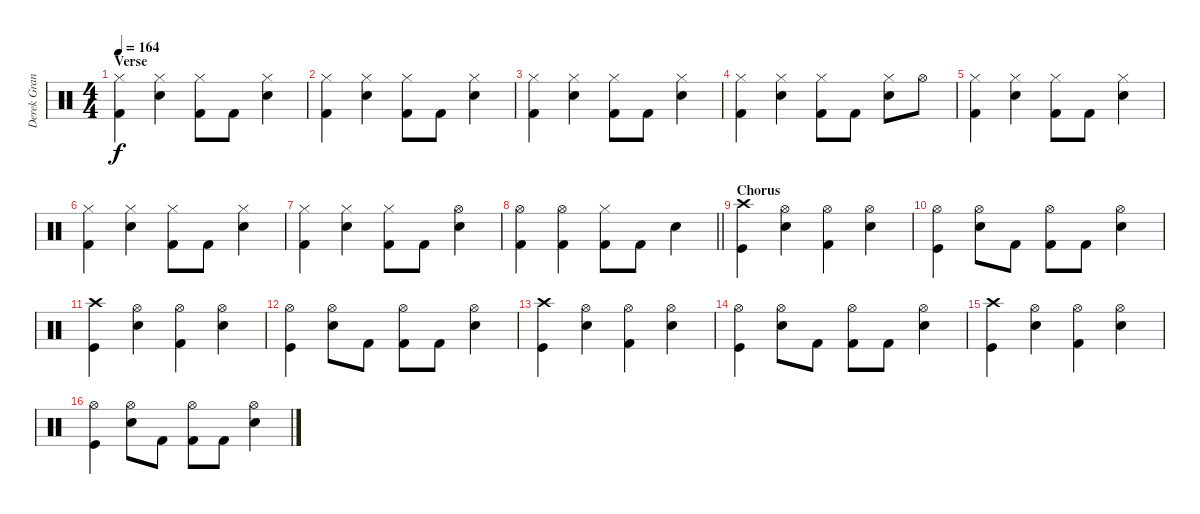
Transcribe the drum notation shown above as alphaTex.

\track ("Derek Grant - Drums" "Derek Gran") {instrument percussion}
\staff {score}
\articulation defaults
\ts (4 4)
\section ("" "Verse")
\tempo 164
\clef neutral
\ks c
("Hi-Hat (closed)" "Kick (hit) 2").4{dy f} ("Hi-Hat (closed)" "Snare (hit) 2").4 ("Hi-Hat (closed)" "Kick (hit) 2").8 "Kick (hit) 2".8 ("Hi-Hat (closed)" "Snare (hit) 2").4 |
("Hi-Hat (closed)" "Kick (hit) 2").4 ("Hi-Hat (closed)" "Snare (hit) 2").4 ("Hi-Hat (closed)" "Kick (hit) 2").8 "Kick (hit) 2".8 ("Hi-Hat (closed)" "Snare (hit) 2").4 |
("Hi-Hat (closed)" "Kick (hit) 2").4 ("Hi-Hat (closed)" "Snare (hit) 2").4 ("Hi-Hat (closed)" "Kick (hit) 2").8 "Kick (hit) 2".8 ("Hi-Hat (closed)" "Snare (hit) 2").4 |
("Hi-Hat (closed)" "Kick (hit) 2").4 ("Hi-Hat (closed)" "Snare (hit) 2").4 ("Hi-Hat (closed)" "Kick (hit) 2").8 "Kick (hit) 2".8 ("Hi-Hat (closed)" "Snare (hit) 2").8 "Hi-Hat (open)".8 |
("Hi-Hat (closed)" "Kick (hit) 2").4 ("Hi-Hat (closed)" "Snare (hit) 2").4 ("Hi-Hat (closed)" "Kick (hit) 2").8 "Kick (hit) 2".8 ("Hi-Hat (closed)" "Snare (hit) 2").4 |
("Hi-Hat (closed)" "Kick (hit) 2").4 ("Hi-Hat (closed)" "Snare (hit) 2").4 ("Hi-Hat (closed)" "Kick (hit) 2").8 "Kick (hit) 2".8 ("Hi-Hat (closed)" "Snare (hit) 2").4 |
("Hi-Hat (closed)" "Kick (hit) 2").4 ("Hi-Hat (closed)" "Snare (hit) 2").4 ("Hi-Hat (closed)" "Kick (hit) 2").8 "Kick (hit) 2".8 ("Hi-Hat (open)" "Snare (hit) 2").4 |
\barLineRight lightlight
("Hi-Hat (open)" "Kick (hit) 2").4 ("Hi-Hat (open)" "Kick (hit) 2").4 ("Hi-Hat (closed)" "Kick (hit) 2").8 "Kick (hit) 2".8 "Snare (hit) 2".4 |
\section ("" "Chorus")
("Crash high (hit)" "Kick (hit)").4 ("Snare (hit) 2" "Hi-Hat (open)").4 ("Kick (hit) 2" "Hi-Hat (open)").4 ("Snare (hit) 2" "Hi-Hat (open)").4 |
("Hi-Hat (open)" "Kick (hit)").4 ("Snare (hit) 2" "Hi-Hat (open)").8 "Kick (hit) 2".8 ("Kick (hit) 2" "Hi-Hat (open)").8 "Kick (hit) 2".8 ("Snare (hit) 2" "Hi-Hat (open)").4 |
("Crash high (hit)" "Kick (hit)").4 ("Snare (hit) 2" "Hi-Hat (open)").4 ("Kick (hit) 2" "Hi-Hat (open)").4 ("Snare (hit) 2" "Hi-Hat (open)").4 |
("Hi-Hat (open)" "Kick (hit)").4 ("Snare (hit) 2" "Hi-Hat (open)").8 "Kick (hit) 2".8 ("Kick (hit) 2" "Hi-Hat (open)").8 "Kick (hit) 2".8 ("Snare (hit) 2" "Hi-Hat (open)").4 |
("Crash high (hit)" "Kick (hit)").4 ("Snare (hit) 2" "Hi-Hat (open)").4 ("Kick (hit) 2" "Hi-Hat (open)").4 ("Snare (hit) 2" "Hi-Hat (open)").4 |
("Hi-Hat (open)" "Kick (hit)").4 ("Snare (hit) 2" "Hi-Hat (open)").8 "Kick (hit) 2".8 ("Kick (hit) 2" "Hi-Hat (open)").8 "Kick (hit) 2".8 ("Snare (hit) 2" "Hi-Hat (open)").4 |
("Crash high (hit)" "Kick (hit)").4 ("Snare (hit) 2" "Hi-Hat (open)").4 ("Kick (hit) 2" "Hi-Hat (open)").4 ("Snare (hit) 2" "Hi-Hat (open)").4 |
("Hi-Hat (open)" "Kick (hit)").4 ("Snare (hit) 2" "Hi-Hat (open)").8 "Kick (hit) 2".8 ("Kick (hit) 2" "Hi-Hat (open)").8 "Kick (hit) 2".8 ("Snare (hit) 2" "Hi-Hat (open)").4
